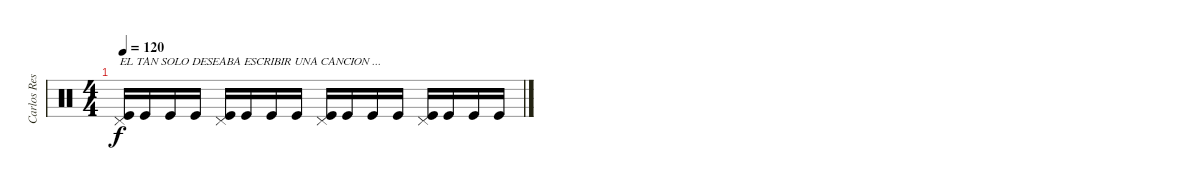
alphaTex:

\track ("Carlos Restrepo" "Carlos Res") {instrument percussion}
\staff {score}
\articulation defaults
\ts (4 4)
\tempo 120
\clef neutral
\ks c
("Kick (hit)" "Pedal Hi-Hat (hit)").16{txt "EL TAN SOLO DESEABA ESCRIBIR UNA CANCION ..." dy f} "Kick (hit)".16 "Kick (hit)".16 "Kick (hit)".16 ("Kick (hit)" "Pedal Hi-Hat (hit)").16 "Kick (hit)".16 "Kick (hit)".16 "Kick (hit)".16 ("Kick (hit)" "Pedal Hi-Hat (hit)").16 "Kick (hit)".16 "Kick (hit)".16 "Kick (hit)".16 ("Kick (hit)" "Pedal Hi-Hat (hit)").16 "Kick (hit)".16 "Kick (hit)".16 "Kick (hit)".16
